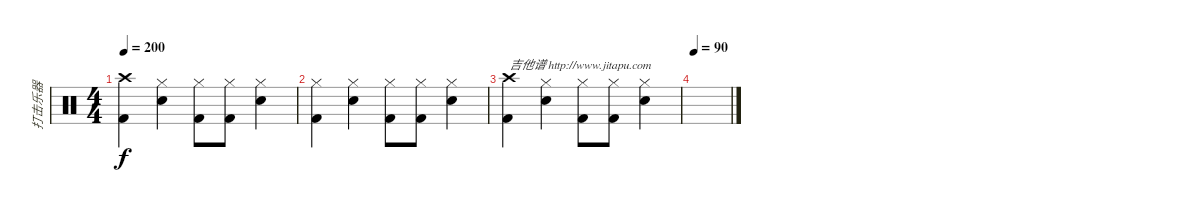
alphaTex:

\track ("打击乐器" "打击乐器") {instrument percussion}
\staff {score}
\articulation defaults
\ts (4 4)
\tempo 200
\clef neutral
\ks c
("Crash high (hit)" "Kick (hit) 2").4{dy f} ("Hi-Hat (closed)" "Snare (hit) 2").4 ("Hi-Hat (closed)" "Kick (hit) 2").8 ("Hi-Hat (closed)" "Kick (hit) 2").8 ("Hi-Hat (closed)" "Snare (hit) 2").4 |
("Hi-Hat (closed)" "Kick (hit) 2").4 ("Hi-Hat (closed)" "Snare (hit) 2").4 ("Hi-Hat (closed)" "Kick (hit) 2").8 ("Hi-Hat (closed)" "Kick (hit) 2").8 ("Hi-Hat (closed)" "Snare (hit) 2").4 |
("Crash high (hit)" "Kick (hit) 2").4{txt "吉他谱 http://www.jitapu.com"} ("Hi-Hat (closed)" "Snare (hit) 2").4 ("Hi-Hat (closed)" "Kick (hit) 2").8 ("Hi-Hat (closed)" "Kick (hit) 2").8 ("Hi-Hat (closed)" "Snare (hit) 2").4 |
\tempo 90
